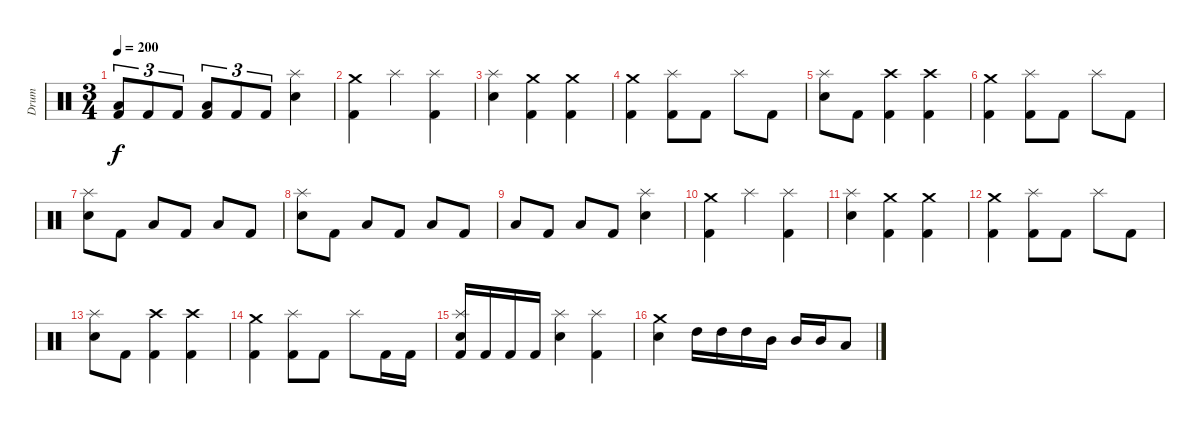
\track ("Drum" "Drum") {instrument percussion}
\staff {score}
\articulation defaults
\ts (3 4)
\tempo 200
\clef neutral
\ks c
("Low Tom (hit)" "Kick (hit) 2").8{tu (3 2) dy f} "Kick (hit) 2".8{tu (3 2)} "Kick (hit) 2".8{tu (3 2)} ("Low Tom (hit)" "Kick (hit) 2").8{tu (3 2)} "Kick (hit) 2".8{tu (3 2)} "Kick (hit) 2".8{tu (3 2)} ("Splash (hit)" "Electric Snare (hit)").4 |
("Crash medium (hit)" "Kick (hit) 2").4 "Splash (hit)".4 ("Splash (hit)" "Kick (hit) 2").4 |
("Splash (hit)" "Electric Snare (hit)").4 ("Crash medium (hit)" "Kick (hit) 2").4 ("Crash medium (hit)" "Kick (hit) 2").4 |
("Crash medium (hit)" "Kick (hit) 2").4 ("Splash (hit)" "Kick (hit) 2").8 "Kick (hit) 2".8 "Splash (hit)".8 "Kick (hit) 2".8 |
("Splash (hit)" "Electric Snare (hit)").8 "Kick (hit) 2".8 ("Crash high (hit)" "Kick (hit) 2").4 ("Crash high (hit)" "Kick (hit) 2").4 |
("Crash medium (hit)" "Kick (hit) 2").4 ("Splash (hit)" "Kick (hit) 2").8 "Kick (hit) 2".8 "Splash (hit)".8 "Kick (hit) 2".8 |
("Splash (hit)" "Electric Snare (hit)").8 "Kick (hit) 2".8 "Low Tom (hit)".8 "Kick (hit) 2".8 "Low Tom (hit)".8 "Kick (hit) 2".8 |
("Splash (hit)" "Snare (hit) 2").8 "Kick (hit) 2".8 "Low Tom (hit)".8 "Kick (hit) 2".8 "Low Tom (hit)".8 "Kick (hit) 2".8 |
"Low Tom (hit)".8 "Kick (hit) 2".8 "Low Tom (hit)".8 "Kick (hit) 2".8 ("Splash (hit)" "Electric Snare (hit)").4 |
("Crash medium (hit)" "Kick (hit) 2").4 "Splash (hit)".4 ("Splash (hit)" "Kick (hit) 2").4 |
("Splash (hit)" "Electric Snare (hit)").4 ("Crash medium (hit)" "Kick (hit) 2").4 ("Crash medium (hit)" "Kick (hit) 2").4 |
("Crash medium (hit)" "Kick (hit) 2").4 ("Splash (hit)" "Kick (hit) 2").8 "Kick (hit) 2".8 "Splash (hit)".8 "Kick (hit) 2".8 |
("Splash (hit)" "Electric Snare (hit)").8 "Kick (hit) 2".8 ("Crash high (hit)" "Kick (hit) 2").4 ("Crash high (hit)" "Kick (hit) 2").4 |
("Crash medium (hit)" "Kick (hit) 2").4 ("Splash (hit)" "Kick (hit) 2").8 "Kick (hit) 2".8 "Splash (hit)".8 "Kick (hit) 2".16 "Kick (hit) 2".16 |
("Splash (hit)" "Electric Snare (hit)" "Kick (hit) 2").16 "Kick (hit) 2".16 "Kick (hit) 2".16 "Kick (hit) 2".16 ("Splash (hit)" "Electric Snare (hit)").4 ("Splash (hit)" "Kick (hit) 2").4 |
("Crash medium (hit)" "Electric Snare (hit)").4 "High Tom (hit)".16 "High Tom (hit)".16 "High Tom (hit)".16 "Mid Tom (hit)".16 "Mid Tom (hit)".16 "Mid Tom (hit)".16 "Low Tom (hit)".8
